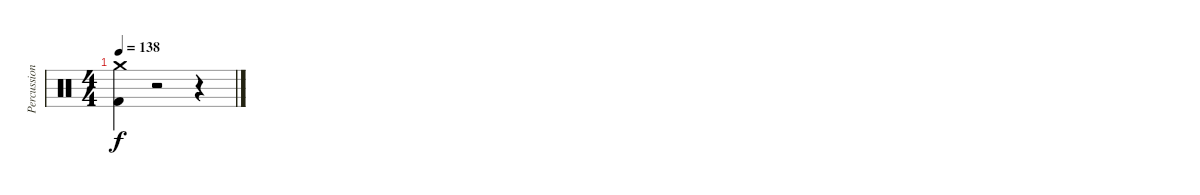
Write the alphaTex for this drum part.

\track ("Percussion" "Percussion") {instrument percussion}
\staff {score}
\articulation defaults
\ts (4 4)
\tempo 138
\clef neutral
\ks c
("Kick (hit) 2" "Crash medium (hit)").4{dy f} r.2 r.4
